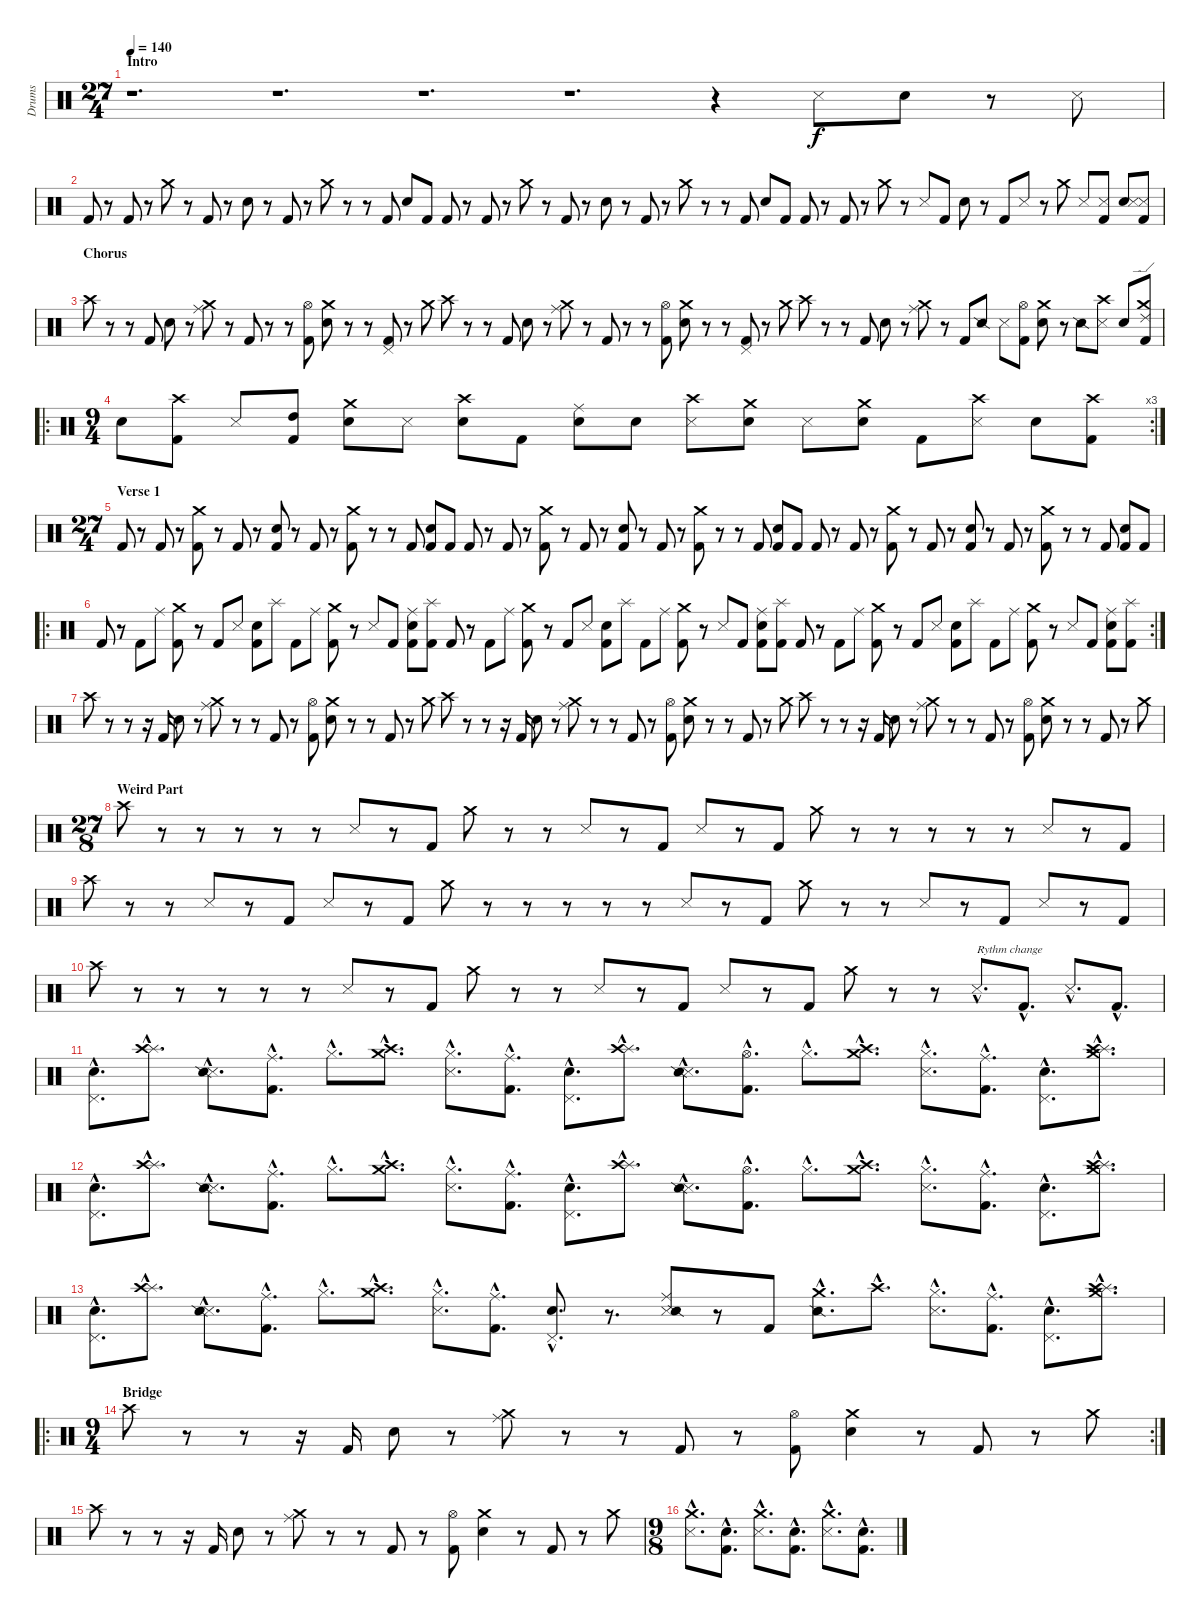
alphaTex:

\track ("Drums" "Drums") {instrument percussion}
\staff {score}
\articulation defaults
\ts (27 4)
\section ("" "Intro")
\tempo 140
\clef neutral
\ks c
r.1{d dy f} r.1{d} r.1{d} r.1{d} r.4 "Snare (side stick) 3".8 "Electric Snare (hit)".8 r.8 "Snare (side stick) 3".8 |
"Kick (hit) 2".8 r.8 "Kick (hit) 2".8 r.8 "Crash medium (hit)".8 r.8 "Kick (hit) 2".8 r.8 "Electric Snare (hit)".8 r.8 "Kick (hit) 2".8 r.8 "Crash medium (hit)".8 r.8 r.8 "Kick (hit) 2".8 "Electric Snare (hit)".8 "Kick (hit) 2".8 "Kick (hit) 2".8 r.8 "Kick (hit) 2".8 r.8 "Crash medium (hit)".8 r.8 "Kick (hit) 2".8 r.8 "Electric Snare (hit)".8 r.8 "Kick (hit) 2".8 r.8 "Crash medium (hit)".8 r.8 r.8 "Kick (hit) 2".8 "Electric Snare (hit)".8 "Kick (hit) 2".8 "Kick (hit) 2".8 r.8 "Kick (hit) 2".8 r.8 "Crash medium (hit)".8 r.8 "Snare (side stick) 3".8 "Kick (hit) 2".8 "Electric Snare (hit)".8 r.8 "Kick (hit) 2".8 "Snare (side stick) 3".8 r.8 "Crash medium (hit)".8 "Snare (side stick) 3".8 ("Snare (side stick) 3" "Kick (hit) 2").8 ("Electric Snare (hit)" "Snare (side stick) 3").8 ("Snare (side stick) 3" "Kick (hit) 2").8 |
\section ("" "Chorus")
"Crash high (hit)".8 r.8 r.8 "Kick (hit) 2".8 "Electric Snare (hit)".8 r.8 ("Crash medium (hit)" "Ride (middle)").8 r.8 "Kick (hit) 2".8 r.8 r.8 ("Hi-Hat (open)" "Kick (hit) 2").8 ("Crash medium (hit)" "Electric Snare (hit)").8 r.8 r.8 ("Pedal Hi-Hat (hit)" "Kick (hit) 2").8 r.8 "Crash medium (hit)".8 "Crash high (hit)".8 r.8 r.8 "Kick (hit) 2".8 "Electric Snare (hit)".8 r.8 ("Crash medium (hit)" "Ride (middle)").8 r.8 "Kick (hit) 2".8 r.8 r.8 ("Hi-Hat (open)" "Kick (hit) 2").8 ("Crash medium (hit)" "Electric Snare (hit)").8 r.8 r.8 ("Pedal Hi-Hat (hit)" "Kick (hit) 2").8 r.8 "Crash medium (hit)".8 "Crash high (hit)".8 r.8 r.8 "Kick (hit) 2".8 "Electric Snare (hit)".8 r.8 ("Crash medium (hit)" "Ride (middle)").8 r.8 "Kick (hit) 2".8 "Snare (side stick) 2".8 "Snare (side stick) 3".8 ("Hi-Hat (open)" "Kick (hit) 2").8 ("Crash medium (hit)" "Electric Snare (hit)").8 r.8 "Snare (side stick) 2".8 ("Crash high (hit)" "Snare (side stick) 3").8 "Electric Snare (hit)".8 ("Crash medium (hit)" "Ride (edge) 2" "Kick (hit) 2").8 |
\ro
\rc 3
\ts (9 4)
"Electric Snare (hit)".8 ("Crash high (hit)" "Kick (hit) 2").8 "Snare (side stick) 3".8 ("High Tom (hit)" "Kick (hit) 2").8 ("Crash medium (hit)" "Electric Snare (hit)").8 "Snare (side stick) 3".8 ("Crash high (hit)" "Electric Snare (hit)").8 "Kick (hit) 2".8 ("Ride (middle)" "Electric Snare (hit)").8 "Electric Snare (hit)".8 ("Crash high (hit)" "Snare (side stick) 3").8 ("Crash medium (hit)" "Electric Snare (hit)").8 "Snare (side stick) 3".8 ("Crash medium (hit)" "Electric Snare (hit)").8 "Kick (hit) 2".8 ("Crash high (hit)" "Snare (side stick) 3").8 "Electric Snare (hit)".8 ("Crash high (hit)" "Kick (hit) 2").8 |
\ts (27 4)
\section ("" "Verse 1")
"Kick (hit) 2".8 r.8 "Kick (hit) 2".8 r.8 ("Crash medium (hit)" "Kick (hit) 2").8 r.8 "Kick (hit) 2".8 r.8 ("Electric Snare (hit)" "Kick (hit) 2").8 r.8 "Kick (hit) 2".8 r.8 ("Crash medium (hit)" "Kick (hit) 2").8 r.8 r.8 "Kick (hit) 2".8 ("Electric Snare (hit)" "Kick (hit) 2").8 "Kick (hit) 2".8 "Kick (hit) 2".8 r.8 "Kick (hit) 2".8 r.8 ("Crash medium (hit)" "Kick (hit) 2").8 r.8 "Kick (hit) 2".8 r.8 ("Electric Snare (hit)" "Kick (hit) 2").8 r.8 "Kick (hit) 2".8 r.8 ("Crash medium (hit)" "Kick (hit) 2").8 r.8 r.8 "Kick (hit) 2".8 ("Electric Snare (hit)" "Kick (hit) 2").8 "Kick (hit) 2".8 "Kick (hit) 2".8 r.8 "Kick (hit) 2".8 r.8 ("Crash medium (hit)" "Kick (hit) 2").8 r.8 "Kick (hit) 2".8 r.8 ("Electric Snare (hit)" "Kick (hit) 2").8 r.8 "Kick (hit) 2".8 r.8 ("Crash medium (hit)" "Kick (hit) 2").8 r.8 r.8 "Kick (hit) 2".8 ("Electric Snare (hit)" "Kick (hit) 2").8 "Kick (hit) 2".8 |
\ro
\rc 2 "Kick (hit) 2".8
r.8 "Kick (hit) 2".8 "Ride (middle)".8 ("Crash medium (hit)" "Kick (hit) 2").8 r.8 "Kick (hit) 2".8 "Snare (side stick) 3".8 ("Electric Snare (hit)" "Kick (hit) 2").8 "Splash (hit)".8 "Kick (hit) 2".8 "Ride (middle)".8 ("Crash medium (hit)" "Kick (hit) 2").8 r.8 "Snare (side stick) 3".8 "Kick (hit) 2".8 ("Ride (middle)" "Electric Snare (hit)" "Kick (hit) 2").8 ("Splash (hit)" "Kick (hit) 2").8 "Kick (hit) 2".8 r.8 "Kick (hit) 2".8 "Ride (middle)".8 ("Crash medium (hit)" "Kick (hit) 2").8 r.8 "Kick (hit) 2".8 "Snare (side stick) 3".8 ("Electric Snare (hit)" "Kick (hit) 2").8 "Splash (hit)".8 "Kick (hit) 2".8 "Ride (middle)".8 ("Crash medium (hit)" "Kick (hit) 2").8 r.8 "Snare (side stick) 3".8 "Kick (hit) 2".8 ("Ride (middle)" "Electric Snare (hit)" "Kick (hit) 2").8 ("Splash (hit)" "Kick (hit) 2").8 "Kick (hit) 2".8 r.8 "Kick (hit) 2".8 "Ride (middle)".8 ("Crash medium (hit)" "Kick (hit) 2").8 r.8 "Kick (hit) 2".8 "Snare (side stick) 3".8 ("Electric Snare (hit)" "Kick (hit) 2").8 "Splash (hit)".8 "Kick (hit) 2".8 "Ride (middle)".8 ("Crash medium (hit)" "Kick (hit) 2").8 r.8 "Snare (side stick) 3".8 "Kick (hit) 2".8 ("Ride (middle)" "Electric Snare (hit)" "Kick (hit) 2").8 ("Splash (hit)" "Kick (hit) 2").8 |
"Crash high (hit)".8 r.8 r.8 r.16 "Kick (hit) 2".16 "Electric Snare (hit)".8 r.8 ("Crash medium (hit)" "Ride (middle)").8 r.8 r.8 "Kick (hit) 2".8 r.8 ("Hi-Hat (open)" "Kick (hit) 2").8 ("Crash medium (hit)" "Electric Snare (hit)").8 r.8 r.8 "Kick (hit) 2".8 r.8 "Crash medium (hit)".8 "Crash high (hit)".8 r.8 r.8 r.16 "Kick (hit) 2".16 "Electric Snare (hit)".8 r.8 ("Crash medium (hit)" "Ride (middle)").8 r.8 r.8 "Kick (hit) 2".8 r.8 ("Hi-Hat (open)" "Kick (hit) 2").8 ("Crash medium (hit)" "Electric Snare (hit)").8 r.8 r.8 "Kick (hit) 2".8 r.8 "Crash medium (hit)".8 "Crash high (hit)".8 r.8 r.8 r.16 "Kick (hit) 2".16 "Electric Snare (hit)".8 r.8 ("Crash medium (hit)" "Ride (middle)").8 r.8 r.8 "Kick (hit) 2".8 r.8 ("Hi-Hat (open)" "Kick (hit) 2").8 ("Crash medium (hit)" "Electric Snare (hit)").8 r.8 r.8 "Kick (hit) 2".8 r.8 "Crash medium (hit)".8 |
\ts (27 8)
\section ("" "Weird Part")
"Crash high (hit)".8 r.8 r.8 r.8 r.8 r.8 "Snare (side stick) 3".8 r.8 "Kick (hit) 2".8 "Crash medium (hit)".8 r.8 r.8 "Snare (side stick) 3".8 r.8 "Kick (hit) 2".8 "Snare (side stick) 3".8 r.8 "Kick (hit) 2".8 "Crash medium (hit)".8 r.8 r.8 r.8 r.8 r.8 "Snare (side stick) 3".8 r.8 "Kick (hit) 2".8 |
"Crash high (hit)".8 r.8 r.8 "Snare (side stick) 3".8 r.8 "Kick (hit) 2".8 "Snare (side stick) 3".8 r.8 "Kick (hit) 2".8 "Crash medium (hit)".8 r.8 r.8 r.8 r.8 r.8 "Snare (side stick) 3".8 r.8 "Kick (hit) 2".8 "Crash medium (hit)".8 r.8 r.8 "Snare (side stick) 3".8 r.8 "Kick (hit) 2".8 "Snare (side stick) 3".8 r.8 "Kick (hit) 2".8 |
"Crash high (hit)".8 r.8 r.8 r.8 r.8 r.8 "Snare (side stick) 3".8 r.8 "Kick (hit) 2".8 "Crash medium (hit)".8 r.8 r.8 "Snare (side stick) 3".8 r.8 "Kick (hit) 2".8 "Snare (side stick) 3".8 r.8 "Kick (hit) 2".8 "Crash medium (hit)".8 r.8 r.8 "Snare (side stick) 3"{hac}.8{d txt "Rythm change"} "Kick (hit) 2"{hac}.8{d} "Snare (side stick) 3"{hac}.8{d} "Kick (hit) 2"{hac}.8{d} |
("Pedal Hi-Hat (hit)"{hac} "Electric Snare (hit)"{hac}).8{d} ("Splash (hit)"{hac} "Crash high (hit)"{hac}).8{d} ("Snare (side stick) 3"{hac} "Snare (side stick) 2"{hac}).8{d} ("Ride (middle)"{hac} "Kick (hit) 2"{hac}).8{d} "Hi-Hat (closed)"{hac}.8{d} ("Crash medium (hit)"{hac} "Crash high (hit)"{hac}).8{d} ("Hi-Hat (closed)"{hac} "Snare (side stick) 3"{hac}).8{d} ("Ride (middle)"{hac} "Kick (hit) 2"{hac}).8{d} ("Pedal Hi-Hat (hit)"{hac} "Electric Snare (hit)"{hac}).8{d} ("Splash (hit)"{hac} "Crash high (hit)"{hac}).8{d} ("Snare (side stick) 3"{hac} "Snare (side stick) 2"{hac}).8{d} ("Hi-Hat (open)"{hac} "Kick (hit) 2"{hac}).8{d} "Hi-Hat (closed)"{hac}.8{d} ("Crash medium (hit)"{hac} "Crash high (hit)"{hac}).8{d} ("Hi-Hat (closed)"{hac} "Snare (side stick) 3"{hac}).8{d} ("Ride (middle)"{hac} "Kick (hit) 2"{hac}).8{d} ("Pedal Hi-Hat (hit)"{hac} "Electric Snare (hit)"{hac}).8{d} ("Crash medium (hit)"{hac} "Splash (hit)"{hac} "Crash high (hit)"{hac}).8{d} |
("Pedal Hi-Hat (hit)"{hac} "Electric Snare (hit)"{hac}).8{d} ("Splash (hit)"{hac} "Crash high (hit)"{hac}).8{d} ("Snare (side stick) 3"{hac} "Snare (side stick) 2"{hac}).8{d} ("Ride (middle)"{hac} "Kick (hit) 2"{hac}).8{d} "Hi-Hat (closed)"{hac}.8{d} ("Crash medium (hit)"{hac} "Crash high (hit)"{hac}).8{d} ("Hi-Hat (closed)"{hac} "Snare (side stick) 3"{hac}).8{d} ("Ride (middle)"{hac} "Kick (hit) 2"{hac}).8{d} ("Pedal Hi-Hat (hit)"{hac} "Electric Snare (hit)"{hac}).8{d} ("Splash (hit)"{hac} "Crash high (hit)"{hac}).8{d} ("Snare (side stick) 3"{hac} "Snare (side stick) 2"{hac}).8{d} ("Hi-Hat (open)"{hac} "Kick (hit) 2"{hac}).8{d} "Hi-Hat (closed)"{hac}.8{d} ("Crash medium (hit)"{hac} "Crash high (hit)"{hac}).8{d} ("Hi-Hat (closed)"{hac} "Snare (side stick) 3"{hac}).8{d} ("Ride (middle)"{hac} "Kick (hit) 2"{hac}).8{d} ("Pedal Hi-Hat (hit)"{hac} "Electric Snare (hit)"{hac}).8{d} ("Crash medium (hit)"{hac} "Splash (hit)"{hac} "Crash high (hit)"{hac}).8{d} |
("Pedal Hi-Hat (hit)"{hac} "Electric Snare (hit)"{hac}).8{d} ("Splash (hit)"{hac} "Crash high (hit)"{hac}).8{d} ("Snare (side stick) 3"{hac} "Snare (side stick) 2"{hac}).8{d} ("Ride (middle)"{hac} "Kick (hit) 2"{hac}).8{d} "Hi-Hat (closed)"{hac}.8{d} ("Crash medium (hit)"{hac} "Crash high (hit)"{hac}).8{d} ("Hi-Hat (closed)"{hac} "Snare (side stick) 3"{hac}).8{d} ("Ride (middle)"{hac} "Kick (hit) 2"{hac}).8{d} ("Pedal Hi-Hat (hit)"{hac} "Electric Snare (hit)"{hac}).8{d} r.8{d} ("Ride (middle)" "Snare (side stick) 3" "Snare (side stick) 2").8 r.8 "Kick (hit) 2".8 ("Crash medium (hit)"{hac} "Snare (side stick) 2"{hac}).8{d} "Crash high (hit)"{hac}.8{d} ("Hi-Hat (closed)"{hac} "Snare (side stick) 3"{hac}).8{d} ("Ride (middle)"{hac} "Kick (hit) 2"{hac}).8{d} ("Pedal Hi-Hat (hit)"{hac} "Electric Snare (hit)"{hac}).8{d} ("Crash medium (hit)"{hac} "Splash (hit)"{hac} "Crash high (hit)"{hac}).8{d} |
\ro
\rc 2
\ts (9 4)
\section ("" "Bridge")
"Crash high (hit)".8 r.8 r.8 r.16 "Kick (hit) 2".16 "Electric Snare (hit)".8 r.8 ("Crash medium (hit)" "Ride (middle)").8 r.8 r.8 "Kick (hit) 2".8 r.8 ("Hi-Hat (open)" "Kick (hit) 2").8 ("Crash medium (hit)" "Electric Snare (hit)").4 r.8 "Kick (hit) 2".8 r.8 "Crash medium (hit)".8 |
"Crash high (hit)".8 r.8 r.8 r.16 "Kick (hit) 2".16 "Electric Snare (hit)".8 r.8 ("Crash medium (hit)" "Ride (middle)").8 r.8 r.8 "Kick (hit) 2".8 r.8 ("Hi-Hat (open)" "Kick (hit) 2").8 ("Crash medium (hit)" "Electric Snare (hit)").4 r.8 "Kick (hit) 2".8 r.8 "Crash medium (hit)".8 |
\ts (9 8)
("Crash medium (hit)"{hac} "Snare (side stick) 3"{hac}).8{d} ("Electric Snare (hit)"{hac} "Kick (hit) 2"{hac}).8{d} ("Crash medium (hit)"{hac} "Snare (side stick) 3"{hac}).8{d} ("Electric Snare (hit)"{hac} "Kick (hit) 2"{hac}).8{d} ("Crash medium (hit)"{hac} "Snare (side stick) 3"{hac}).8{d} ("Electric Snare (hit)"{hac} "Kick (hit) 2"{hac}).8{d}
